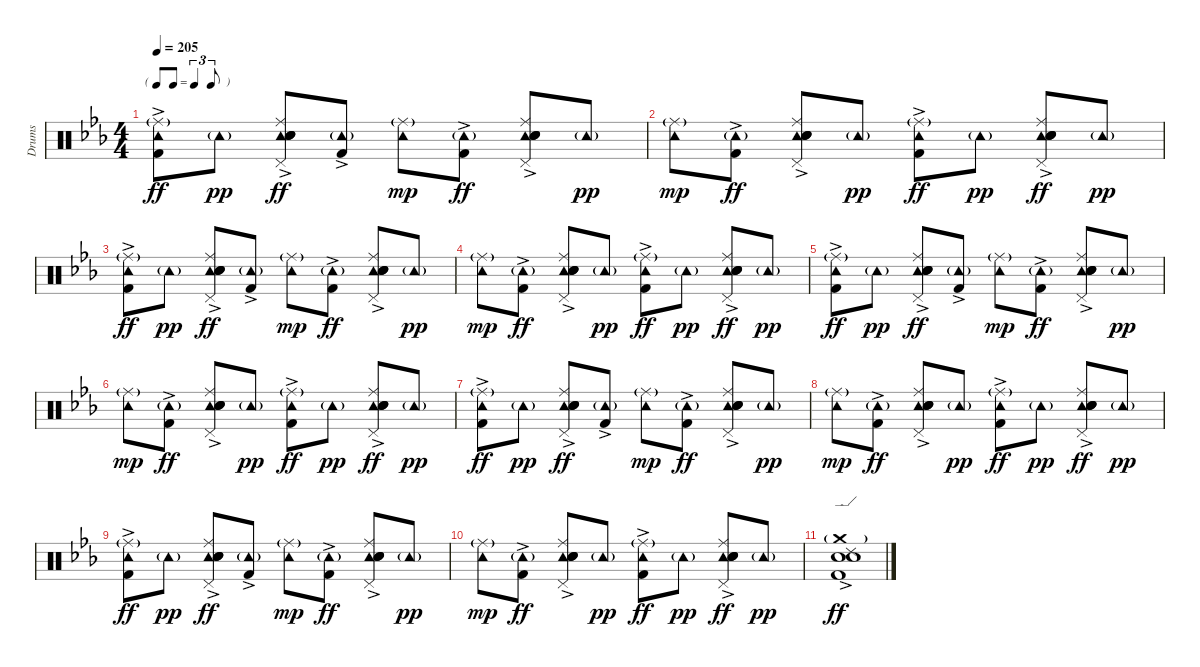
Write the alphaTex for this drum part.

\track ("Drums" "Drums") {instrument percussion}
\staff {score}
\articulation defaults
\ts (4 4)
\tf triplet8th
\tempo 205
\clef neutral
\ks eb
("Ride (middle)"{g} "Tambourine (hit)" "Kick (hit) 2"{ac}).8{dy ff} "Tambourine (hit)"{g}.8{dy pp} ("Ride (middle)" "Tambourine (hit)"{ac} "Hand Clap (hit)" "Electric Snare (hit)"{ac} "Snare (hit) 2" "Pedal Hi-Hat (hit)").8{dy ff} ("Tambourine (hit)"{g} "Kick (hit) 2"{ac}).8 ("Ride (middle)"{g} "Tambourine (hit)").8{dy mp} ("Tambourine (hit)"{g} "Kick (hit) 2"{ac}).8{dy ff} ("Ride (middle)" "Tambourine (hit)"{ac} "Hand Clap (hit)" "Electric Snare (hit)"{ac} "Snare (hit) 2" "Pedal Hi-Hat (hit)").8 "Tambourine (hit)"{g}.8{dy pp} |
("Ride (middle)"{g} "Tambourine (hit)").8{dy mp} ("Tambourine (hit)"{g} "Kick (hit) 2"{ac}).8{dy ff} ("Ride (middle)" "Tambourine (hit)"{ac} "Hand Clap (hit)" "Electric Snare (hit)"{ac} "Snare (hit) 2" "Pedal Hi-Hat (hit)").8 "Tambourine (hit)"{g}.8{dy pp} ("Ride (middle)"{g} "Tambourine (hit)" "Kick (hit) 2"{ac}).8{dy ff} "Tambourine (hit)"{g}.8{dy pp} ("Ride (middle)" "Tambourine (hit)"{ac} "Hand Clap (hit)" "Electric Snare (hit)"{ac} "Snare (hit) 2" "Pedal Hi-Hat (hit)").8{dy ff} "Tambourine (hit)"{g}.8{dy pp} |
("Ride (middle)"{g} "Tambourine (hit)" "Kick (hit) 2"{ac}).8{dy ff} "Tambourine (hit)"{g}.8{dy pp} ("Ride (middle)" "Tambourine (hit)"{ac} "Hand Clap (hit)" "Electric Snare (hit)"{ac} "Snare (hit) 2" "Pedal Hi-Hat (hit)").8{dy ff} ("Tambourine (hit)"{g} "Kick (hit) 2"{ac}).8 ("Ride (middle)"{g} "Tambourine (hit)").8{dy mp} ("Tambourine (hit)"{g} "Kick (hit) 2"{ac}).8{dy ff} ("Ride (middle)" "Tambourine (hit)"{ac} "Hand Clap (hit)" "Electric Snare (hit)"{ac} "Snare (hit) 2" "Pedal Hi-Hat (hit)").8 "Tambourine (hit)"{g}.8{dy pp} |
("Ride (middle)"{g} "Tambourine (hit)").8{dy mp} ("Tambourine (hit)"{g} "Kick (hit) 2"{ac}).8{dy ff} ("Ride (middle)" "Tambourine (hit)"{ac} "Hand Clap (hit)" "Electric Snare (hit)"{ac} "Snare (hit) 2" "Pedal Hi-Hat (hit)").8 "Tambourine (hit)"{g}.8{dy pp} ("Ride (middle)"{g} "Tambourine (hit)" "Kick (hit) 2"{ac}).8{dy ff} "Tambourine (hit)"{g}.8{dy pp} ("Ride (middle)" "Tambourine (hit)"{ac} "Hand Clap (hit)" "Electric Snare (hit)"{ac} "Snare (hit) 2" "Pedal Hi-Hat (hit)").8{dy ff} "Tambourine (hit)"{g}.8{dy pp} |
("Ride (middle)"{g} "Tambourine (hit)" "Kick (hit) 2"{ac}).8{dy ff} "Tambourine (hit)"{g}.8{dy pp} ("Ride (middle)" "Tambourine (hit)"{ac} "Hand Clap (hit)" "Electric Snare (hit)"{ac} "Snare (hit) 2" "Pedal Hi-Hat (hit)").8{dy ff} ("Tambourine (hit)"{g} "Kick (hit) 2"{ac}).8 ("Ride (middle)"{g} "Tambourine (hit)").8{dy mp} ("Tambourine (hit)"{g} "Kick (hit) 2"{ac}).8{dy ff} ("Ride (middle)" "Tambourine (hit)"{ac} "Hand Clap (hit)" "Electric Snare (hit)"{ac} "Snare (hit) 2" "Pedal Hi-Hat (hit)").8 "Tambourine (hit)"{g}.8{dy pp} |
("Ride (middle)"{g} "Tambourine (hit)").8{dy mp} ("Tambourine (hit)"{g} "Kick (hit) 2"{ac}).8{dy ff} ("Ride (middle)" "Tambourine (hit)"{ac} "Hand Clap (hit)" "Electric Snare (hit)"{ac} "Snare (hit) 2" "Pedal Hi-Hat (hit)").8 "Tambourine (hit)"{g}.8{dy pp} ("Ride (middle)"{g} "Tambourine (hit)" "Kick (hit) 2"{ac}).8{dy ff} "Tambourine (hit)"{g}.8{dy pp} ("Ride (middle)" "Tambourine (hit)"{ac} "Hand Clap (hit)" "Electric Snare (hit)"{ac} "Snare (hit) 2" "Pedal Hi-Hat (hit)").8{dy ff} "Tambourine (hit)"{g}.8{dy pp} |
("Ride (middle)"{g} "Tambourine (hit)" "Kick (hit) 2"{ac}).8{dy ff} "Tambourine (hit)"{g}.8{dy pp} ("Ride (middle)" "Tambourine (hit)"{ac} "Hand Clap (hit)" "Electric Snare (hit)"{ac} "Snare (hit) 2" "Pedal Hi-Hat (hit)").8{dy ff} ("Tambourine (hit)"{g} "Kick (hit) 2"{ac}).8 ("Ride (middle)"{g} "Tambourine (hit)").8{dy mp} ("Tambourine (hit)"{g} "Kick (hit) 2"{ac}).8{dy ff} ("Ride (middle)" "Tambourine (hit)"{ac} "Hand Clap (hit)" "Electric Snare (hit)"{ac} "Snare (hit) 2" "Pedal Hi-Hat (hit)").8 "Tambourine (hit)"{g}.8{dy pp} |
("Ride (middle)"{g} "Tambourine (hit)").8{dy mp} ("Tambourine (hit)"{g} "Kick (hit) 2"{ac}).8{dy ff} ("Ride (middle)" "Tambourine (hit)"{ac} "Hand Clap (hit)" "Electric Snare (hit)"{ac} "Snare (hit) 2" "Pedal Hi-Hat (hit)").8 "Tambourine (hit)"{g}.8{dy pp} ("Ride (middle)"{g} "Tambourine (hit)" "Kick (hit) 2"{ac}).8{dy ff} "Tambourine (hit)"{g}.8{dy pp} ("Ride (middle)" "Tambourine (hit)"{ac} "Hand Clap (hit)" "Electric Snare (hit)"{ac} "Snare (hit) 2" "Pedal Hi-Hat (hit)").8{dy ff} "Tambourine (hit)"{g}.8{dy pp} |
("Ride (middle)"{g} "Tambourine (hit)" "Kick (hit) 2"{ac}).8{dy ff} "Tambourine (hit)"{g}.8{dy pp} ("Ride (middle)" "Tambourine (hit)"{ac} "Hand Clap (hit)" "Electric Snare (hit)"{ac} "Snare (hit) 2" "Pedal Hi-Hat (hit)").8{dy ff} ("Tambourine (hit)"{g} "Kick (hit) 2"{ac}).8 ("Ride (middle)"{g} "Tambourine (hit)").8{dy mp} ("Tambourine (hit)"{g} "Kick (hit) 2"{ac}).8{dy ff} ("Ride (middle)" "Tambourine (hit)"{ac} "Hand Clap (hit)" "Electric Snare (hit)"{ac} "Snare (hit) 2" "Pedal Hi-Hat (hit)").8 "Tambourine (hit)"{g}.8{dy pp} |
("Ride (middle)"{g} "Tambourine (hit)").8{dy mp} ("Tambourine (hit)"{g} "Kick (hit) 2"{ac}).8{dy ff} ("Ride (middle)" "Tambourine (hit)"{ac} "Hand Clap (hit)" "Electric Snare (hit)"{ac} "Snare (hit) 2" "Pedal Hi-Hat (hit)").8 "Tambourine (hit)"{g}.8{dy pp} ("Ride (middle)"{g} "Tambourine (hit)" "Kick (hit) 2"{ac}).8{dy ff} "Tambourine (hit)"{g}.8{dy pp} ("Ride (middle)" "Tambourine (hit)"{ac} "Hand Clap (hit)" "Electric Snare (hit)"{ac} "Snare (hit) 2" "Pedal Hi-Hat (hit)").8{dy ff} "Tambourine (hit)"{g}.8{dy pp} |
("Crash medium (hit)"{g} "Ride (edge) 2" "Electric Snare (hit)" "Snare (hit) 2" "Kick (hit) 2"{ac}).1{dy ff}
